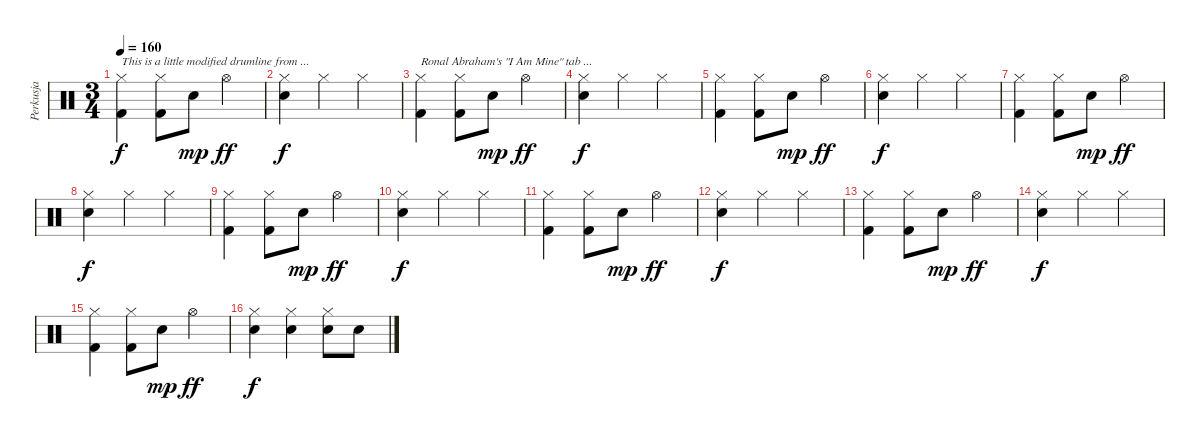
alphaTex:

\track ("Perkusja" "Perkusja") {instrument percussion}
\staff {score}
\articulation defaults
\ts (3 4)
\tempo 160
\clef neutral
\ks c
("Hi-Hat (closed)" "Kick (hit) 2").4{txt "This is a little modified drumline from ..." dy f} ("Hi-Hat (closed)" "Kick (hit) 2").8 "Snare (hit) 2".8{dy mp} "Hi-Hat (open)".4{dy ff} |
("Hi-Hat (closed)" "Snare (hit) 2").4{dy f} "Hi-Hat (closed)".4 "Hi-Hat (closed)".4 |
("Hi-Hat (closed)" "Kick (hit) 2").4{txt "Ronal Abraham's \"I Am Mine\" tab ..."} ("Hi-Hat (closed)" "Kick (hit) 2").8 "Snare (hit) 2".8{dy mp} "Hi-Hat (open)".4{dy ff} |
("Hi-Hat (closed)" "Snare (hit) 2").4{dy f} "Hi-Hat (closed)".4 "Hi-Hat (closed)".4 |
("Hi-Hat (closed)" "Kick (hit) 2").4 ("Hi-Hat (closed)" "Kick (hit) 2").8 "Snare (hit) 2".8{dy mp} "Hi-Hat (open)".4{dy ff} |
("Hi-Hat (closed)" "Snare (hit) 2").4{dy f} "Hi-Hat (closed)".4 "Hi-Hat (closed)".4 |
("Hi-Hat (closed)" "Kick (hit) 2").4 ("Hi-Hat (closed)" "Kick (hit) 2").8 "Snare (hit) 2".8{dy mp} "Hi-Hat (open)".4{dy ff} |
("Hi-Hat (closed)" "Snare (hit) 2").4{dy f} "Hi-Hat (closed)".4 "Hi-Hat (closed)".4 |
("Hi-Hat (closed)" "Kick (hit) 2").4 ("Hi-Hat (closed)" "Kick (hit) 2").8 "Snare (hit) 2".8{dy mp} "Hi-Hat (open)".4{dy ff} |
("Hi-Hat (closed)" "Snare (hit) 2").4{dy f} "Hi-Hat (closed)".4 "Hi-Hat (closed)".4 |
("Hi-Hat (closed)" "Kick (hit) 2").4 ("Hi-Hat (closed)" "Kick (hit) 2").8 "Snare (hit) 2".8{dy mp} "Hi-Hat (open)".4{dy ff} |
("Hi-Hat (closed)" "Snare (hit) 2").4{dy f} "Hi-Hat (closed)".4 "Hi-Hat (closed)".4 |
("Hi-Hat (closed)" "Kick (hit) 2").4 ("Hi-Hat (closed)" "Kick (hit) 2").8 "Snare (hit) 2".8{dy mp} "Hi-Hat (open)".4{dy ff} |
("Hi-Hat (closed)" "Snare (hit) 2").4{dy f} "Hi-Hat (closed)".4 "Hi-Hat (closed)".4 |
("Hi-Hat (closed)" "Kick (hit) 2").4 ("Hi-Hat (closed)" "Kick (hit) 2").8 "Snare (hit) 2".8{dy mp} "Hi-Hat (open)".4{dy ff} |
("Hi-Hat (closed)" "Snare (hit) 2").4{dy f} ("Hi-Hat (closed)" "Snare (hit) 2").4 ("Hi-Hat (closed)" "Snare (hit) 2").8 "Snare (hit) 2".8
